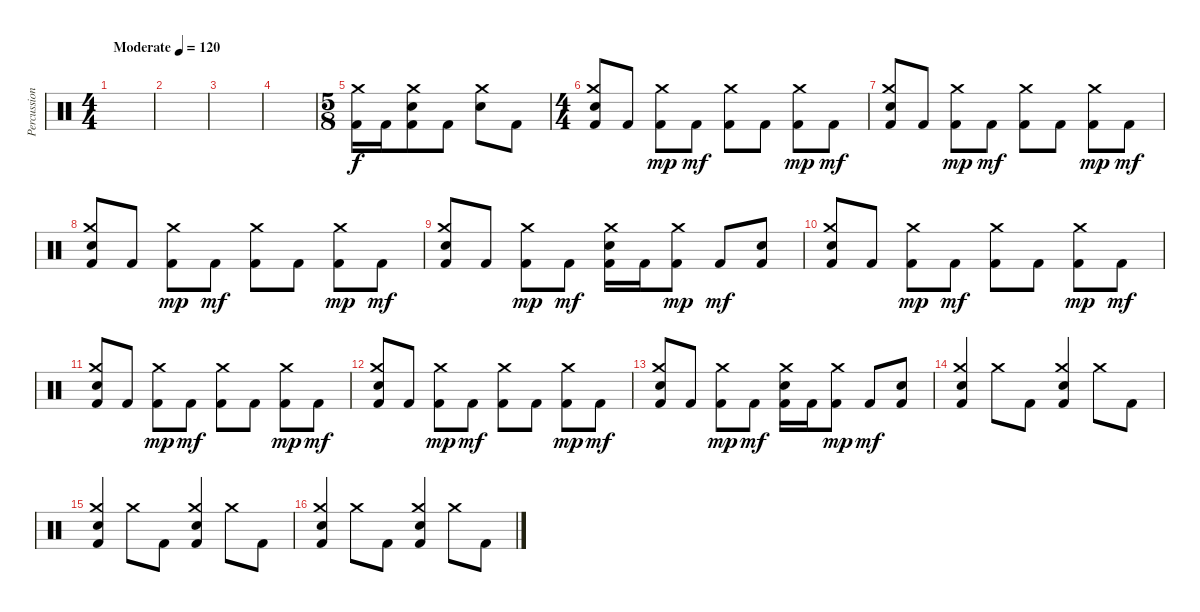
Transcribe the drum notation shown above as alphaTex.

\track ("Percussion" "Percussion") {instrument percussion}
\staff {score}
\articulation defaults
\ts (4 4)
\tempo (120 "Moderate")
\clef neutral
\ks c
|
|
|
|
\ts (5 8)
("Kick (hit) 2" "Crash medium (hit)").16 "Kick (hit) 2".16 ("Kick (hit) 2" "Electric Snare (hit)" "Crash medium (hit)").8 "Kick (hit) 2".8 ("Electric Snare (hit)" "Crash medium (hit)").8 "Kick (hit) 2".8 |
\ts (4 4)
("Kick (hit) 2" "Crash medium (hit)" "Electric Snare (hit)").8 "Kick (hit) 2".8 ("Kick (hit) 2" "Crash medium (hit)").8{dy mp} "Kick (hit) 2".8{dy mf} ("Kick (hit) 2" "Crash medium (hit)").8 "Kick (hit) 2".8 ("Kick (hit) 2" "Crash medium (hit)").8{dy mp} "Kick (hit) 2".8{dy mf} |
("Kick (hit) 2" "Crash medium (hit)" "Electric Snare (hit)").8 "Kick (hit) 2".8 ("Kick (hit) 2" "Crash medium (hit)").8{dy mp} "Kick (hit) 2".8{dy mf} ("Kick (hit) 2" "Crash medium (hit)").8 "Kick (hit) 2".8 ("Kick (hit) 2" "Crash medium (hit)").8{dy mp} "Kick (hit) 2".8{dy mf} |
("Kick (hit) 2" "Crash medium (hit)" "Electric Snare (hit)").8 "Kick (hit) 2".8 ("Kick (hit) 2" "Crash medium (hit)").8{dy mp} "Kick (hit) 2".8{dy mf} ("Kick (hit) 2" "Crash medium (hit)").8 "Kick (hit) 2".8 ("Kick (hit) 2" "Crash medium (hit)").8{dy mp} "Kick (hit) 2".8{dy mf} |
("Kick (hit) 2" "Crash medium (hit)" "Electric Snare (hit)").8 "Kick (hit) 2".8 ("Kick (hit) 2" "Crash medium (hit)").8{dy mp} "Kick (hit) 2".8{dy mf} ("Kick (hit) 2" "Crash medium (hit)" "Electric Snare (hit)").16 "Kick (hit) 2".16 ("Kick (hit) 2" "Crash medium (hit)").8{dy mp} "Kick (hit) 2".8{dy mf} ("Kick (hit) 2" "Electric Snare (hit)").8 |
("Kick (hit) 2" "Crash medium (hit)" "Electric Snare (hit)").8 "Kick (hit) 2".8 ("Kick (hit) 2" "Crash medium (hit)").8{dy mp} "Kick (hit) 2".8{dy mf} ("Kick (hit) 2" "Crash medium (hit)").8 "Kick (hit) 2".8 ("Kick (hit) 2" "Crash medium (hit)").8{dy mp} "Kick (hit) 2".8{dy mf} |
("Kick (hit) 2" "Crash medium (hit)" "Electric Snare (hit)").8 "Kick (hit) 2".8 ("Kick (hit) 2" "Crash medium (hit)").8{dy mp} "Kick (hit) 2".8{dy mf} ("Kick (hit) 2" "Crash medium (hit)").8 "Kick (hit) 2".8 ("Kick (hit) 2" "Crash medium (hit)").8{dy mp} "Kick (hit) 2".8{dy mf} |
("Kick (hit) 2" "Crash medium (hit)" "Electric Snare (hit)").8 "Kick (hit) 2".8 ("Kick (hit) 2" "Crash medium (hit)").8{dy mp} "Kick (hit) 2".8{dy mf} ("Kick (hit) 2" "Crash medium (hit)").8 "Kick (hit) 2".8 ("Kick (hit) 2" "Crash medium (hit)").8{dy mp} "Kick (hit) 2".8{dy mf} |
("Kick (hit) 2" "Crash medium (hit)" "Electric Snare (hit)").8 "Kick (hit) 2".8 ("Kick (hit) 2" "Crash medium (hit)").8{dy mp} "Kick (hit) 2".8{dy mf} ("Kick (hit) 2" "Crash medium (hit)" "Electric Snare (hit)").16 "Kick (hit) 2".16 ("Kick (hit) 2" "Crash medium (hit)").8{dy mp} "Kick (hit) 2".8{dy mf} ("Kick (hit) 2" "Electric Snare (hit)").8 |
("Kick (hit) 2" "Crash medium (hit)" "Electric Snare (hit)").4 "Crash medium (hit)".8 "Kick (hit) 2".8 ("Kick (hit) 2" "Crash medium (hit)" "Electric Snare (hit)").4 "Crash medium (hit)".8 "Kick (hit) 2".8 |
("Kick (hit) 2" "Crash medium (hit)" "Electric Snare (hit)").4 "Crash medium (hit)".8 "Kick (hit) 2".8 ("Kick (hit) 2" "Crash medium (hit)" "Electric Snare (hit)").4 "Crash medium (hit)".8 "Kick (hit) 2".8 |
("Kick (hit) 2" "Crash medium (hit)" "Electric Snare (hit)").4 "Crash medium (hit)".8 "Kick (hit) 2".8 ("Kick (hit) 2" "Crash medium (hit)" "Electric Snare (hit)").4 "Crash medium (hit)".8 "Kick (hit) 2".8
